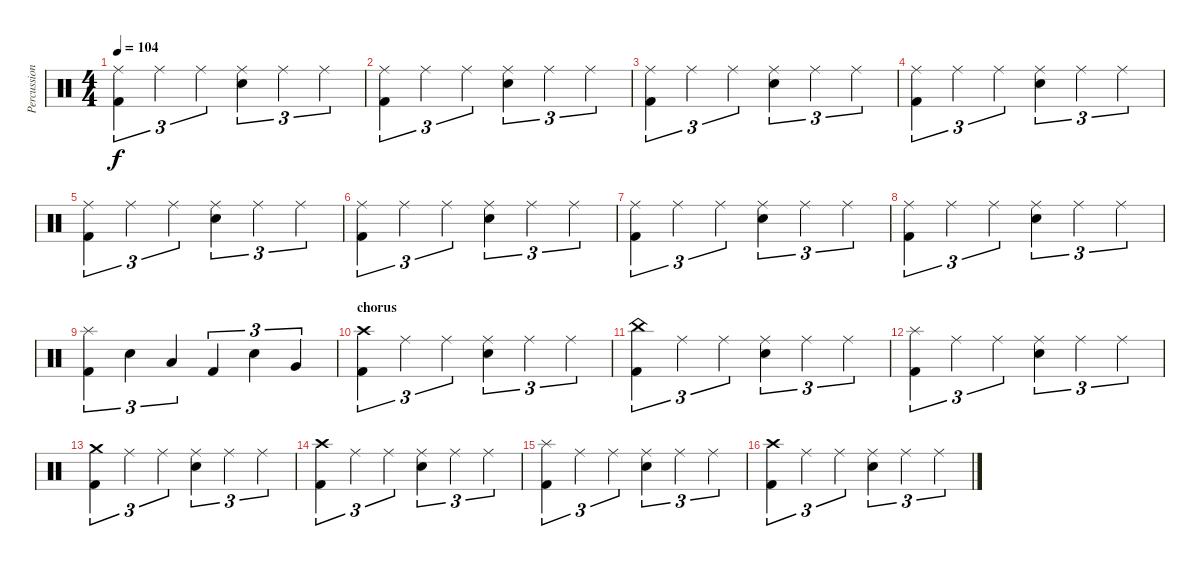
\track ("Percussion" "Percussion") {instrument percussion}
\staff {score}
\articulation defaults
\ts (4 4)
\tempo 104
\clef neutral
\ks c
("Ride (middle)" "Kick (hit) 2").4{tu (3 2) dy f} "Ride (middle)".4{tu (3 2)} "Ride (middle)".4{tu (3 2)} ("Electric Snare (hit)" "Ride (middle)").4{tu (3 2)} "Ride (middle)".4{tu (3 2)} "Ride (middle)".4{tu (3 2)} |
("Ride (middle)" "Kick (hit) 2").4{tu (3 2)} "Ride (middle)".4{tu (3 2)} "Ride (middle)".4{tu (3 2)} ("Electric Snare (hit)" "Ride (middle)").4{tu (3 2)} "Ride (middle)".4{tu (3 2)} "Ride (middle)".4{tu (3 2)} |
("Ride (middle)" "Kick (hit) 2").4{tu (3 2)} "Ride (middle)".4{tu (3 2)} "Ride (middle)".4{tu (3 2)} ("Electric Snare (hit)" "Ride (middle)").4{tu (3 2)} "Ride (middle)".4{tu (3 2)} "Ride (middle)".4{tu (3 2)} |
("Ride (middle)" "Kick (hit) 2").4{tu (3 2)} "Ride (middle)".4{tu (3 2)} "Ride (middle)".4{tu (3 2)} ("Electric Snare (hit)" "Ride (middle)").4{tu (3 2)} "Ride (middle)".4{tu (3 2)} "Ride (middle)".4{tu (3 2)} |
("Ride (middle)" "Kick (hit) 2").4{tu (3 2)} "Ride (middle)".4{tu (3 2)} "Ride (middle)".4{tu (3 2)} ("Electric Snare (hit)" "Ride (middle)").4{tu (3 2)} "Ride (middle)".4{tu (3 2)} "Ride (middle)".4{tu (3 2)} |
("Ride (middle)" "Kick (hit) 2").4{tu (3 2)} "Ride (middle)".4{tu (3 2)} "Ride (middle)".4{tu (3 2)} ("Electric Snare (hit)" "Ride (middle)").4{tu (3 2)} "Ride (middle)".4{tu (3 2)} "Ride (middle)".4{tu (3 2)} |
("Ride (middle)" "Kick (hit) 2").4{tu (3 2)} "Ride (middle)".4{tu (3 2)} "Ride (middle)".4{tu (3 2)} ("Electric Snare (hit)" "Ride (middle)").4{tu (3 2)} "Ride (middle)".4{tu (3 2)} "Ride (middle)".4{tu (3 2)} |
("Ride (middle)" "Kick (hit) 2").4{tu (3 2)} "Ride (middle)".4{tu (3 2)} "Ride (middle)".4{tu (3 2)} ("Electric Snare (hit)" "Ride (middle)").4{tu (3 2)} "Ride (middle)".4{tu (3 2)} "Ride (middle)".4{tu (3 2)} |
("Splash (hit)" "Kick (hit) 2").4{tu (3 2)} "Electric Snare (hit)".4{tu (3 2)} "Low Tom (hit)".4{tu (3 2)} "Kick (hit) 2".4{tu (3 2)} "Electric Snare (hit)".4{tu (3 2)} "Very Low Tom (hit)".4{tu (3 2)} |
\section ("" "chorus")
("Crash high (hit)" "Kick (hit) 2").4{tu (3 2)} "Ride (middle)".4{tu (3 2)} "Ride (middle)".4{tu (3 2)} ("Electric Snare (hit)" "Ride (middle)").4{tu (3 2)} "Ride (middle)".4{tu (3 2)} "Ride (middle)".4{tu (3 2)} |
("China (hit)" "Kick (hit) 2").4{tu (3 2)} "Ride (middle)".4{tu (3 2)} "Ride (middle)".4{tu (3 2)} ("Electric Snare (hit)" "Ride (middle)").4{tu (3 2)} "Ride (middle)".4{tu (3 2)} "Ride (middle)".4{tu (3 2)} |
("Splash (hit)" "Kick (hit) 2").4{tu (3 2)} "Ride (middle)".4{tu (3 2)} "Ride (middle)".4{tu (3 2)} ("Electric Snare (hit)" "Ride (middle)").4{tu (3 2)} "Ride (middle)".4{tu (3 2)} "Ride (middle)".4{tu (3 2)} |
("Crash medium (hit)" "Kick (hit) 2").4{tu (3 2)} "Ride (middle)".4{tu (3 2)} "Ride (middle)".4{tu (3 2)} ("Electric Snare (hit)" "Ride (middle)").4{tu (3 2)} "Ride (middle)".4{tu (3 2)} "Ride (middle)".4{tu (3 2)} |
("Crash high (hit)" "Kick (hit) 2").4{tu (3 2)} "Ride (middle)".4{tu (3 2)} "Ride (middle)".4{tu (3 2)} ("Electric Snare (hit)" "Ride (middle)").4{tu (3 2)} "Ride (middle)".4{tu (3 2)} "Ride (middle)".4{tu (3 2)} |
("Splash (hit)" "Kick (hit) 2").4{tu (3 2)} "Ride (middle)".4{tu (3 2)} "Ride (middle)".4{tu (3 2)} ("Electric Snare (hit)" "Ride (middle)").4{tu (3 2)} "Ride (middle)".4{tu (3 2)} "Ride (middle)".4{tu (3 2)} |
("Crash high (hit)" "Kick (hit) 2").4{tu (3 2)} "Ride (middle)".4{tu (3 2)} "Ride (middle)".4{tu (3 2)} ("Electric Snare (hit)" "Ride (middle)").4{tu (3 2)} "Ride (middle)".4{tu (3 2)} "Ride (middle)".4{tu (3 2)}
